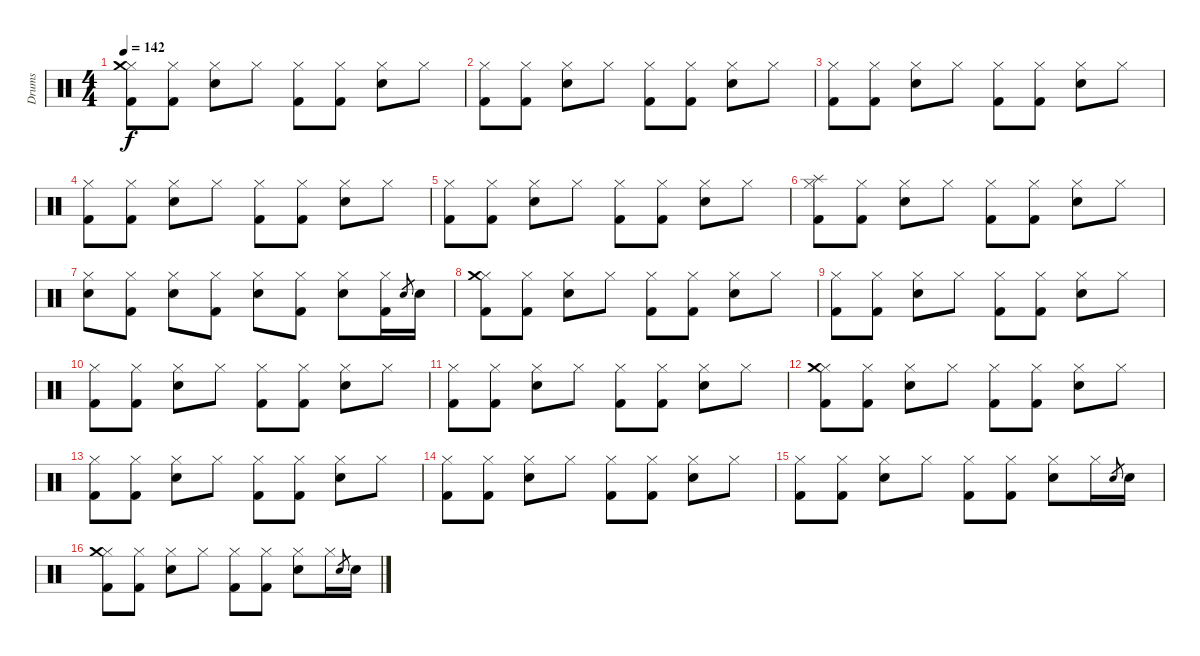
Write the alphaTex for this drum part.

\track ("Drums" "Drums") {instrument percussion}
\staff {score}
\articulation defaults
\ts (4 4)
\tempo 142
\clef neutral
\ks c
("Hi-Hat (closed)" "Crash medium (hit)" "Kick (hit) 2").8{dy f} ("Hi-Hat (closed)" "Kick (hit) 2").8 ("Hi-Hat (closed)" "Electric Snare (hit)").8 "Hi-Hat (closed)".8 ("Hi-Hat (closed)" "Kick (hit) 2").8 ("Hi-Hat (closed)" "Kick (hit) 2").8 ("Hi-Hat (closed)" "Electric Snare (hit)").8 "Hi-Hat (closed)".8 |
("Hi-Hat (closed)" "Kick (hit) 2").8 ("Hi-Hat (closed)" "Kick (hit) 2").8 ("Hi-Hat (closed)" "Electric Snare (hit)").8 "Hi-Hat (closed)".8 ("Hi-Hat (closed)" "Kick (hit) 2").8 ("Hi-Hat (closed)" "Kick (hit) 2").8 ("Hi-Hat (closed)" "Electric Snare (hit)").8 "Hi-Hat (closed)".8 |
("Hi-Hat (closed)" "Kick (hit) 2").8 ("Hi-Hat (closed)" "Kick (hit) 2").8 ("Hi-Hat (closed)" "Electric Snare (hit)").8 "Hi-Hat (closed)".8 ("Hi-Hat (closed)" "Kick (hit) 2").8 ("Hi-Hat (closed)" "Kick (hit) 2").8 ("Hi-Hat (closed)" "Electric Snare (hit)").8 "Hi-Hat (closed)".8 |
("Hi-Hat (closed)" "Kick (hit) 2").8 ("Hi-Hat (closed)" "Kick (hit) 2").8 ("Hi-Hat (closed)" "Electric Snare (hit)").8 "Hi-Hat (closed)".8 ("Hi-Hat (closed)" "Kick (hit) 2").8 ("Hi-Hat (closed)" "Kick (hit) 2").8 ("Hi-Hat (closed)" "Electric Snare (hit)").8 "Hi-Hat (closed)".8 |
("Hi-Hat (closed)" "Kick (hit) 2").8 ("Hi-Hat (closed)" "Kick (hit) 2").8 ("Hi-Hat (closed)" "Electric Snare (hit)").8 "Hi-Hat (closed)".8 ("Hi-Hat (closed)" "Kick (hit) 2").8 ("Hi-Hat (closed)" "Kick (hit) 2").8 ("Hi-Hat (closed)" "Electric Snare (hit)").8 "Hi-Hat (closed)".8 |
("Hi-Hat (closed)" "Splash (hit)" "Kick (hit) 2").8 ("Hi-Hat (closed)" "Kick (hit) 2").8 ("Hi-Hat (closed)" "Electric Snare (hit)").8 "Hi-Hat (closed)".8 ("Hi-Hat (closed)" "Kick (hit) 2").8 ("Hi-Hat (closed)" "Kick (hit) 2").8 ("Hi-Hat (closed)" "Electric Snare (hit)").8 "Hi-Hat (closed)".8 |
("Hi-Hat (closed)" "Electric Snare (hit)").8 ("Hi-Hat (closed)" "Kick (hit) 2").8 ("Hi-Hat (closed)" "Electric Snare (hit)").8 ("Hi-Hat (closed)" "Kick (hit) 2").8 ("Hi-Hat (closed)" "Electric Snare (hit)").8 ("Hi-Hat (closed)" "Kick (hit) 2").8 ("Hi-Hat (closed)" "Electric Snare (hit)").8 ("Hi-Hat (closed)" "Kick (hit) 2").16 "Electric Snare (hit)".8{gr} "Electric Snare (hit)".16 |
("Hi-Hat (closed)" "Crash medium (hit)" "Kick (hit) 2").8 ("Hi-Hat (closed)" "Kick (hit) 2").8 ("Hi-Hat (closed)" "Electric Snare (hit)").8 "Hi-Hat (closed)".8 ("Hi-Hat (closed)" "Kick (hit) 2").8 ("Hi-Hat (closed)" "Kick (hit) 2").8 ("Hi-Hat (closed)" "Electric Snare (hit)").8 "Hi-Hat (closed)".8 |
("Hi-Hat (closed)" "Kick (hit) 2").8 ("Hi-Hat (closed)" "Kick (hit) 2").8 ("Hi-Hat (closed)" "Electric Snare (hit)").8 "Hi-Hat (closed)".8 ("Hi-Hat (closed)" "Kick (hit) 2").8 ("Hi-Hat (closed)" "Kick (hit) 2").8 ("Hi-Hat (closed)" "Electric Snare (hit)").8 "Hi-Hat (closed)".8 |
("Hi-Hat (closed)" "Kick (hit) 2").8 ("Hi-Hat (closed)" "Kick (hit) 2").8 ("Hi-Hat (closed)" "Electric Snare (hit)").8 "Hi-Hat (closed)".8 ("Hi-Hat (closed)" "Kick (hit) 2").8 ("Hi-Hat (closed)" "Kick (hit) 2").8 ("Hi-Hat (closed)" "Electric Snare (hit)").8 "Hi-Hat (closed)".8 |
("Hi-Hat (closed)" "Kick (hit) 2").8 ("Hi-Hat (closed)" "Kick (hit) 2").8 ("Hi-Hat (closed)" "Electric Snare (hit)").8 "Hi-Hat (closed)".8 ("Hi-Hat (closed)" "Kick (hit) 2").8 ("Hi-Hat (closed)" "Kick (hit) 2").8 ("Hi-Hat (closed)" "Electric Snare (hit)").8 "Hi-Hat (closed)".8 |
("Hi-Hat (closed)" "Crash medium (hit)" "Kick (hit) 2").8 ("Hi-Hat (closed)" "Kick (hit) 2").8 ("Hi-Hat (closed)" "Electric Snare (hit)").8 "Hi-Hat (closed)".8 ("Hi-Hat (closed)" "Kick (hit) 2").8 ("Hi-Hat (closed)" "Kick (hit) 2").8 ("Hi-Hat (closed)" "Electric Snare (hit)").8 "Hi-Hat (closed)".8 |
("Hi-Hat (closed)" "Kick (hit) 2").8 ("Hi-Hat (closed)" "Kick (hit) 2").8 ("Hi-Hat (closed)" "Electric Snare (hit)").8 "Hi-Hat (closed)".8 ("Hi-Hat (closed)" "Kick (hit) 2").8 ("Hi-Hat (closed)" "Kick (hit) 2").8 ("Hi-Hat (closed)" "Electric Snare (hit)").8 "Hi-Hat (closed)".8 |
("Hi-Hat (closed)" "Kick (hit) 2").8 ("Hi-Hat (closed)" "Kick (hit) 2").8 ("Hi-Hat (closed)" "Electric Snare (hit)").8 "Hi-Hat (closed)".8 ("Hi-Hat (closed)" "Kick (hit) 2").8 ("Hi-Hat (closed)" "Kick (hit) 2").8 ("Hi-Hat (closed)" "Electric Snare (hit)").8 "Hi-Hat (closed)".8 |
("Hi-Hat (closed)" "Kick (hit) 2").8 ("Hi-Hat (closed)" "Kick (hit) 2").8 ("Hi-Hat (closed)" "Electric Snare (hit)").8 "Hi-Hat (closed)".8 ("Hi-Hat (closed)" "Kick (hit) 2").8 ("Hi-Hat (closed)" "Kick (hit) 2").8 ("Hi-Hat (closed)" "Electric Snare (hit)").8 "Hi-Hat (closed)".16 "Electric Snare (hit)".8{gr} "Electric Snare (hit)".16 |
("Hi-Hat (closed)" "Crash medium (hit)" "Kick (hit) 2").8 ("Hi-Hat (closed)" "Kick (hit) 2").8 ("Hi-Hat (closed)" "Electric Snare (hit)").8 "Hi-Hat (closed)".8 ("Hi-Hat (closed)" "Kick (hit) 2").8 ("Hi-Hat (closed)" "Kick (hit) 2").8 ("Hi-Hat (closed)" "Electric Snare (hit)").8 "Hi-Hat (closed)".16 "Electric Snare (hit)".8{gr} "Electric Snare (hit)".16
